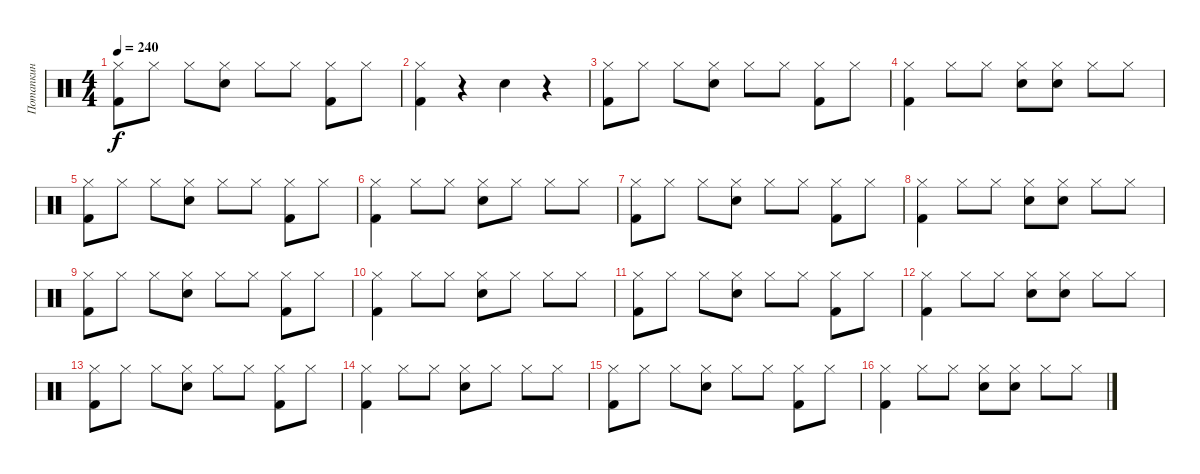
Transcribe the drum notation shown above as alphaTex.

\track ("Потапкин" "Потапкин") {instrument percussion}
\staff {score}
\articulation defaults
\ts (4 4)
\tempo 240
\clef neutral
\ks c
("Hi-Hat (closed)" "Kick (hit) 2").8{dy f} "Hi-Hat (closed)".8 "Hi-Hat (closed)".8 ("Hi-Hat (closed)" "Electric Snare (hit)").8 "Hi-Hat (closed)".8 "Hi-Hat (closed)".8 ("Kick (hit) 2" "Hi-Hat (closed)").8 "Hi-Hat (closed)".8 |
("Hi-Hat (closed)" "Kick (hit) 2").4 r.4 "Electric Snare (hit)".4 r.4 |
("Hi-Hat (closed)" "Kick (hit) 2").8 "Hi-Hat (closed)".8 "Hi-Hat (closed)".8 ("Hi-Hat (closed)" "Electric Snare (hit)").8 "Hi-Hat (closed)".8 "Hi-Hat (closed)".8 ("Kick (hit) 2" "Hi-Hat (closed)").8 "Hi-Hat (closed)".8 |
("Hi-Hat (closed)" "Kick (hit) 2").4 "Hi-Hat (closed)".8 "Hi-Hat (closed)".8 ("Hi-Hat (closed)" "Electric Snare (hit)").8 ("Hi-Hat (closed)" "Electric Snare (hit)").8 "Hi-Hat (closed)".8 "Hi-Hat (closed)".8 |
("Hi-Hat (closed)" "Kick (hit) 2").8 "Hi-Hat (closed)".8 "Hi-Hat (closed)".8 ("Hi-Hat (closed)" "Electric Snare (hit)").8 "Hi-Hat (closed)".8 "Hi-Hat (closed)".8 ("Kick (hit) 2" "Hi-Hat (closed)").8 "Hi-Hat (closed)".8 |
("Hi-Hat (closed)" "Kick (hit) 2").4 "Hi-Hat (closed)".8 "Hi-Hat (closed)".8 ("Hi-Hat (closed)" "Electric Snare (hit)").8 "Hi-Hat (closed)".8 "Hi-Hat (closed)".8 "Hi-Hat (closed)".8 |
("Hi-Hat (closed)" "Kick (hit) 2").8 "Hi-Hat (closed)".8 "Hi-Hat (closed)".8 ("Hi-Hat (closed)" "Electric Snare (hit)").8 "Hi-Hat (closed)".8 "Hi-Hat (closed)".8 ("Kick (hit) 2" "Hi-Hat (closed)").8 "Hi-Hat (closed)".8 |
("Hi-Hat (closed)" "Kick (hit) 2").4 "Hi-Hat (closed)".8 "Hi-Hat (closed)".8 ("Hi-Hat (closed)" "Electric Snare (hit)").8 ("Hi-Hat (closed)" "Electric Snare (hit)").8 "Hi-Hat (closed)".8 "Hi-Hat (closed)".8 |
("Hi-Hat (closed)" "Kick (hit) 2").8 "Hi-Hat (closed)".8 "Hi-Hat (closed)".8 ("Hi-Hat (closed)" "Electric Snare (hit)").8 "Hi-Hat (closed)".8 "Hi-Hat (closed)".8 ("Kick (hit) 2" "Hi-Hat (closed)").8 "Hi-Hat (closed)".8 |
("Hi-Hat (closed)" "Kick (hit) 2").4 "Hi-Hat (closed)".8 "Hi-Hat (closed)".8 ("Hi-Hat (closed)" "Electric Snare (hit)").8 "Hi-Hat (closed)".8 "Hi-Hat (closed)".8 "Hi-Hat (closed)".8 |
("Hi-Hat (closed)" "Kick (hit) 2").8 "Hi-Hat (closed)".8 "Hi-Hat (closed)".8 ("Hi-Hat (closed)" "Electric Snare (hit)").8 "Hi-Hat (closed)".8 "Hi-Hat (closed)".8 ("Kick (hit) 2" "Hi-Hat (closed)").8 "Hi-Hat (closed)".8 |
("Hi-Hat (closed)" "Kick (hit) 2").4 "Hi-Hat (closed)".8 "Hi-Hat (closed)".8 ("Hi-Hat (closed)" "Electric Snare (hit)").8 ("Hi-Hat (closed)" "Electric Snare (hit)").8 "Hi-Hat (closed)".8 "Hi-Hat (closed)".8 |
("Hi-Hat (closed)" "Kick (hit) 2").8 "Hi-Hat (closed)".8 "Hi-Hat (closed)".8 ("Hi-Hat (closed)" "Electric Snare (hit)").8 "Hi-Hat (closed)".8 "Hi-Hat (closed)".8 ("Kick (hit) 2" "Hi-Hat (closed)").8 "Hi-Hat (closed)".8 |
("Hi-Hat (closed)" "Kick (hit) 2").4 "Hi-Hat (closed)".8 "Hi-Hat (closed)".8 ("Hi-Hat (closed)" "Electric Snare (hit)").8 "Hi-Hat (closed)".8 "Hi-Hat (closed)".8 "Hi-Hat (closed)".8 |
("Hi-Hat (closed)" "Kick (hit) 2").8 "Hi-Hat (closed)".8 "Hi-Hat (closed)".8 ("Hi-Hat (closed)" "Electric Snare (hit)").8 "Hi-Hat (closed)".8 "Hi-Hat (closed)".8 ("Kick (hit) 2" "Hi-Hat (closed)").8 "Hi-Hat (closed)".8 |
("Hi-Hat (closed)" "Kick (hit) 2").4 "Hi-Hat (closed)".8 "Hi-Hat (closed)".8 ("Hi-Hat (closed)" "Electric Snare (hit)").8 ("Hi-Hat (closed)" "Electric Snare (hit)").8 "Hi-Hat (closed)".8 "Hi-Hat (closed)".8
